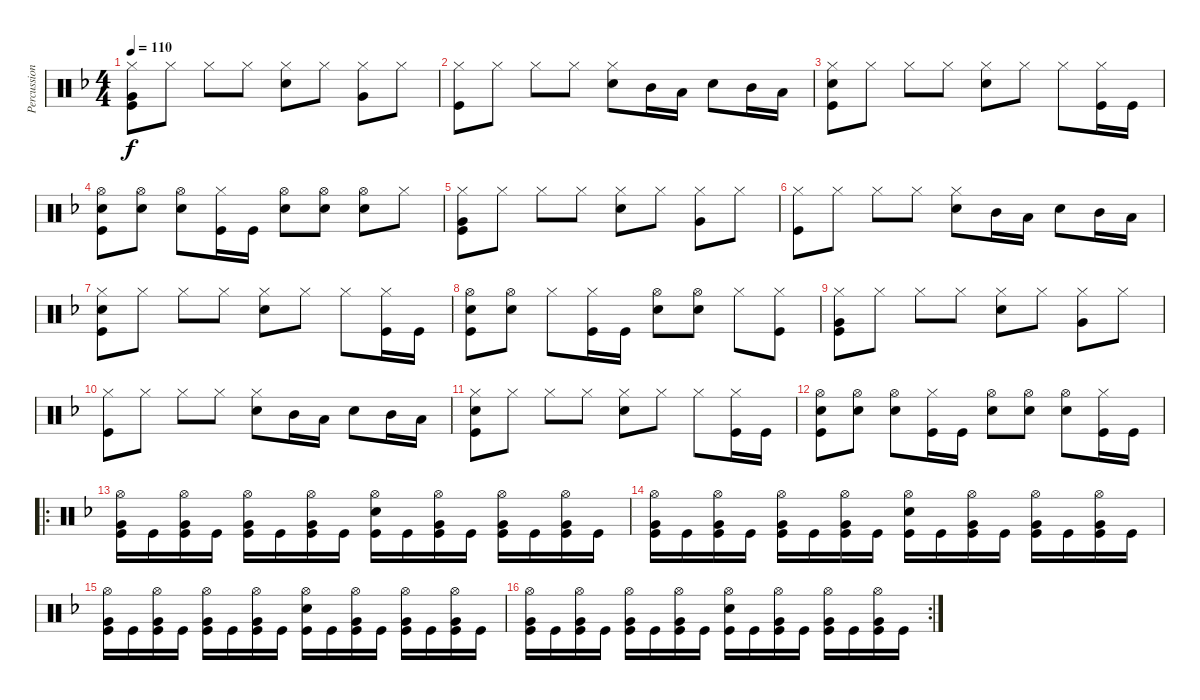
\track ("Percussion" "Percussion") {instrument percussion}
\staff {score}
\articulation defaults
\ts (4 4)
\tempo 110
\clef neutral
\ks dminor
("Hi-Hat (closed)" "Very Low Tom (hit)" "Kick (hit)").8{dy f} "Hi-Hat (closed)".8 "Hi-Hat (closed)".8 "Hi-Hat (closed)".8 ("Hi-Hat (closed)" "Snare (hit) 2").8 "Hi-Hat (closed)".8 ("Hi-Hat (closed)" "Very Low Tom (hit)").8 "Hi-Hat (closed)".8 |
("Hi-Hat (closed)" "Kick (hit)").8 "Hi-Hat (closed)".8 "Hi-Hat (closed)".8 "Hi-Hat (closed)".8 ("Hi-Hat (closed)" "Snare (hit) 2").8 "Mid Tom (hit)".16 "Low Tom (hit)".16 "Snare (hit) 2".8 "Mid Tom (hit)".16 "Low Tom (hit)".16 |
("Hi-Hat (closed)" "Snare (hit) 2" "Kick (hit)").8 "Hi-Hat (closed)".8 "Hi-Hat (closed)".8 "Hi-Hat (closed)".8 ("Hi-Hat (closed)" "Snare (hit) 2").8 "Hi-Hat (closed)".8 "Hi-Hat (closed)".8 ("Hi-Hat (closed)" "Kick (hit)").16 "Kick (hit)".16 |
("Hi-Hat (open)" "Snare (hit) 2" "Kick (hit)").8 ("Hi-Hat (open)" "Snare (hit) 2").8 ("Hi-Hat (open)" "Snare (hit) 2").8 ("Hi-Hat (closed)" "Kick (hit)").16 "Kick (hit)".16 ("Hi-Hat (open)" "Snare (hit) 2").8 ("Hi-Hat (open)" "Snare (hit) 2").8 ("Hi-Hat (open)" "Snare (hit) 2").8 "Hi-Hat (closed)".8 |
("Hi-Hat (closed)" "Very Low Tom (hit)" "Kick (hit)").8 "Hi-Hat (closed)".8 "Hi-Hat (closed)".8 "Hi-Hat (closed)".8 ("Hi-Hat (closed)" "Snare (hit) 2").8 "Hi-Hat (closed)".8 ("Hi-Hat (closed)" "Very Low Tom (hit)").8 "Hi-Hat (closed)".8 |
("Hi-Hat (closed)" "Kick (hit)").8 "Hi-Hat (closed)".8 "Hi-Hat (closed)".8 "Hi-Hat (closed)".8 ("Hi-Hat (closed)" "Snare (hit) 2").8 "Mid Tom (hit)".16 "Low Tom (hit)".16 "Snare (hit) 2".8 "Mid Tom (hit)".16 "Low Tom (hit)".16 |
("Hi-Hat (closed)" "Snare (hit) 2" "Kick (hit)").8 "Hi-Hat (closed)".8 "Hi-Hat (closed)".8 "Hi-Hat (closed)".8 ("Hi-Hat (closed)" "Snare (hit) 2").8 "Hi-Hat (closed)".8 "Hi-Hat (closed)".8 ("Hi-Hat (closed)" "Kick (hit)").16 "Kick (hit)".16 |
("Hi-Hat (open)" "Snare (hit) 2" "Kick (hit)").8 ("Hi-Hat (open)" "Snare (hit) 2").8 "Hi-Hat (closed)".8 ("Hi-Hat (closed)" "Kick (hit)").16 "Kick (hit)".16 ("Hi-Hat (open)" "Snare (hit) 2").8 ("Hi-Hat (open)" "Snare (hit) 2").8 "Hi-Hat (closed)".8 ("Hi-Hat (closed)" "Kick (hit)").8 |
("Hi-Hat (closed)" "Very Low Tom (hit)" "Kick (hit)").8 "Hi-Hat (closed)".8 "Hi-Hat (closed)".8 "Hi-Hat (closed)".8 ("Hi-Hat (closed)" "Snare (hit) 2").8 "Hi-Hat (closed)".8 ("Hi-Hat (closed)" "Very Low Tom (hit)").8 "Hi-Hat (closed)".8 |
("Hi-Hat (closed)" "Kick (hit)").8 "Hi-Hat (closed)".8 "Hi-Hat (closed)".8 "Hi-Hat (closed)".8 ("Hi-Hat (closed)" "Snare (hit) 2").8 "Mid Tom (hit)".16 "Low Tom (hit)".16 "Snare (hit) 2".8 "Mid Tom (hit)".16 "Low Tom (hit)".16 |
("Hi-Hat (closed)" "Snare (hit) 2" "Kick (hit)").8 "Hi-Hat (closed)".8 "Hi-Hat (closed)".8 "Hi-Hat (closed)".8 ("Hi-Hat (closed)" "Snare (hit) 2").8 "Hi-Hat (closed)".8 "Hi-Hat (closed)".8 ("Hi-Hat (closed)" "Kick (hit)").16 "Kick (hit)".16 |
("Hi-Hat (open)" "Snare (hit) 2" "Kick (hit)").8 ("Hi-Hat (open)" "Snare (hit) 2").8 ("Hi-Hat (open)" "Snare (hit) 2").8 ("Hi-Hat (closed)" "Kick (hit)").16 "Kick (hit)".16 ("Hi-Hat (open)" "Snare (hit) 2").8 ("Hi-Hat (open)" "Snare (hit) 2").8 ("Hi-Hat (open)" "Snare (hit) 2").8 ("Hi-Hat (closed)" "Kick (hit)").16 "Kick (hit)".16 |
\ro
("Hi-Hat (open)" "Very Low Tom (hit)" "Kick (hit)").16{volume 9} "Kick (hit)".16 ("Hi-Hat (open)" "Very Low Tom (hit)" "Kick (hit)").16 "Kick (hit)".16 ("Hi-Hat (open)" "Very Low Tom (hit)" "Kick (hit)").16 "Kick (hit)".16 ("Hi-Hat (open)" "Very Low Tom (hit)" "Kick (hit)").16 "Kick (hit)".16 ("Hi-Hat (open)" "Snare (hit) 2" "Kick (hit)").16 "Kick (hit)".16 ("Hi-Hat (open)" "Very Low Tom (hit)" "Kick (hit)").16 "Kick (hit)".16 ("Hi-Hat (open)" "Very Low Tom (hit)" "Kick (hit)").16 "Kick (hit)".16 ("Hi-Hat (open)" "Very Low Tom (hit)" "Kick (hit)").16 "Kick (hit)".16 |
("Hi-Hat (open)" "Very Low Tom (hit)" "Kick (hit)").16 "Kick (hit)".16 ("Hi-Hat (open)" "Very Low Tom (hit)" "Kick (hit)").16 "Kick (hit)".16 ("Hi-Hat (open)" "Very Low Tom (hit)" "Kick (hit)").16 "Kick (hit)".16 ("Hi-Hat (open)" "Very Low Tom (hit)" "Kick (hit)").16 "Kick (hit)".16 ("Hi-Hat (open)" "Snare (hit) 2" "Kick (hit)").16 "Kick (hit)".16 ("Hi-Hat (open)" "Very Low Tom (hit)" "Kick (hit)").16 "Kick (hit)".16 ("Hi-Hat (open)" "Very Low Tom (hit)" "Kick (hit)").16 "Kick (hit)".16 ("Hi-Hat (open)" "Very Low Tom (hit)" "Kick (hit)").16 "Kick (hit)".16 |
("Hi-Hat (open)" "Very Low Tom (hit)" "Kick (hit)").16 "Kick (hit)".16 ("Hi-Hat (open)" "Very Low Tom (hit)" "Kick (hit)").16 "Kick (hit)".16 ("Hi-Hat (open)" "Very Low Tom (hit)" "Kick (hit)").16 "Kick (hit)".16 ("Hi-Hat (open)" "Very Low Tom (hit)" "Kick (hit)").16 "Kick (hit)".16 ("Hi-Hat (open)" "Snare (hit) 2" "Kick (hit)").16 "Kick (hit)".16 ("Hi-Hat (open)" "Very Low Tom (hit)" "Kick (hit)").16 "Kick (hit)".16 ("Hi-Hat (open)" "Very Low Tom (hit)" "Kick (hit)").16 "Kick (hit)".16 ("Hi-Hat (open)" "Very Low Tom (hit)" "Kick (hit)").16 "Kick (hit)".16 |
\rc 2
("Hi-Hat (open)" "Very Low Tom (hit)" "Kick (hit)").16 "Kick (hit)".16 ("Hi-Hat (open)" "Very Low Tom (hit)" "Kick (hit)").16 "Kick (hit)".16 ("Hi-Hat (open)" "Very Low Tom (hit)" "Kick (hit)").16 "Kick (hit)".16 ("Hi-Hat (open)" "Very Low Tom (hit)" "Kick (hit)").16 "Kick (hit)".16 ("Hi-Hat (open)" "Snare (hit) 2" "Kick (hit)").16 "Kick (hit)".16 ("Hi-Hat (open)" "Very Low Tom (hit)" "Kick (hit)").16 "Kick (hit)".16 ("Hi-Hat (open)" "Very Low Tom (hit)" "Kick (hit)").16 "Kick (hit)".16 ("Hi-Hat (open)" "Very Low Tom (hit)" "Kick (hit)").16 "Kick (hit)".16
